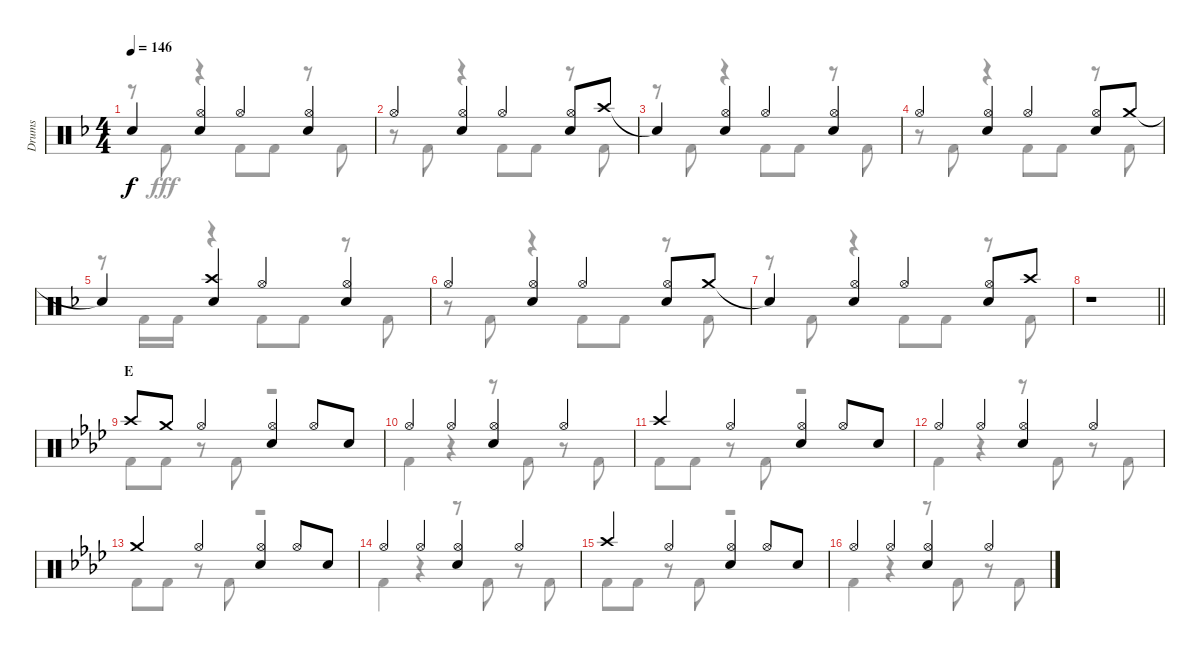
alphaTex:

\track ("Drums" "Drums") {instrument percussion}
\staff {score}
\articulation defaults
\voice
\ts (4 4)
\tempo 146
\clef neutral
\ks f "Snare (hit)"{t}.4{dy f}
("Hi-Hat (open)" "Snare (hit) 2").4 "Hi-Hat (open)".4 ("Hi-Hat (open)" "Snare (hit) 2").4 |
"Hi-Hat (open)".4 ("Hi-Hat (open)" "Snare (hit) 2").4 "Hi-Hat (open)".4 ("Hi-Hat (open)" "Snare (hit) 2").8 "Crash high (hit)".8 |
"Snare (hit)"{t}.4 ("Hi-Hat (open)" "Snare (hit) 2").4 "Hi-Hat (open)".4 ("Hi-Hat (open)" "Snare (hit) 2").4 |
"Hi-Hat (open)".4 ("Hi-Hat (open)" "Snare (hit) 2").4 "Hi-Hat (open)".4 ("Hi-Hat (open)" "Snare (hit) 2").8 "Crash medium (hit)".8 |
"Snare (hit)"{t}.4 ("Crash high (hit)" "Snare (hit) 2").4 "Hi-Hat (open)".4 ("Hi-Hat (open)" "Snare (hit) 2").4 |
"Hi-Hat (open)".4 ("Hi-Hat (open)" "Snare (hit) 2").4 "Hi-Hat (open)".4 ("Hi-Hat (open)" "Snare (hit) 2").8 "Crash medium (hit)".8 |
"Snare (hit)"{t}.4 ("Hi-Hat (open)" "Snare (hit) 2").4 "Hi-Hat (open)".4 ("Hi-Hat (open)" "Snare (hit) 2").8 "Crash high (hit)".8 |
\barLineRight lightlight
r.1 |
\section ("" "E")
\ks ab "Crash high (hit)".8 "Crash medium (hit)".8 "Hi-Hat (open)".4
("Hi-Hat (open)" "Snare (hit) 2").4 "Hi-Hat (open)".8 "Snare (hit) 2".8 |
"Hi-Hat (open)".4 "Hi-Hat (open)".4 ("Hi-Hat (open)" "Snare (hit) 2").4 "Hi-Hat (open)".4 |
"Crash high (hit)".4 "Hi-Hat (open)".4 ("Hi-Hat (open)" "Snare (hit) 2").4 "Hi-Hat (open)".8 "Snare (hit) 2".8 |
"Hi-Hat (open)".4 "Hi-Hat (open)".4 ("Hi-Hat (open)" "Snare (hit) 2").4 "Hi-Hat (open)".4 |
"Crash medium (hit)".4 "Hi-Hat (open)".4 ("Hi-Hat (open)" "Snare (hit) 2").4 "Hi-Hat (open)".8 "Snare (hit) 2".8 |
"Hi-Hat (open)".4 "Hi-Hat (open)".4 ("Hi-Hat (open)" "Snare (hit) 2").4 "Hi-Hat (open)".4 |
"Crash high (hit)".4 "Hi-Hat (open)".4 ("Hi-Hat (open)" "Snare (hit) 2").4 "Hi-Hat (open)".8 "Snare (hit) 2".8 |
"Hi-Hat (open)".4 "Hi-Hat (open)".4 ("Hi-Hat (open)" "Snare (hit) 2").4 "Hi-Hat (open)".4
\voice
\clef neutral
\ottava regular
\simile none
\ks f
r.8{dy fff} "Kick (hit) 2".8 r.4 "Kick (hit) 2".8 "Kick (hit) 2".8 r.8 "Kick (hit) 2".8 |
r.8 "Kick (hit) 2".8 r.4 "Kick (hit) 2".8 "Kick (hit) 2".8 r.8 "Kick (hit) 2".8 |
r.8 "Kick (hit) 2".8 r.4 "Kick (hit) 2".8 "Kick (hit) 2".8 r.8 "Kick (hit) 2".8 |
r.8 "Kick (hit) 2".8 r.4 "Kick (hit) 2".8 "Kick (hit) 2".8 r.8 "Kick (hit) 2".8 |
r.8 "Kick (hit) 2".16 "Kick (hit) 2".16 r.4 "Kick (hit) 2".8 "Kick (hit) 2".8 r.8 "Kick (hit) 2".8 |
r.8 "Kick (hit) 2".8 r.4 "Kick (hit) 2".8 "Kick (hit) 2".8 r.8 "Kick (hit) 2".8 |
r.8 "Kick (hit) 2".8 r.4 "Kick (hit) 2".8 "Kick (hit) 2".8 r.8 "Kick (hit) 2".8 |
\barLineRight lightlight
r.1 |
\ks ab "Kick (hit) 2".8 "Kick (hit) 2".8
r.8 "Kick (hit) 2".8 r.2 |
"Kick (hit) 2".4 r.4 r.8 "Kick (hit) 2".8 r.8 "Kick (hit) 2".8 |
"Kick (hit) 2".8 "Kick (hit) 2".8 r.8 "Kick (hit) 2".8 r.2 |
"Kick (hit) 2".4 r.4 r.8 "Kick (hit) 2".8 r.8 "Kick (hit) 2".8 |
"Kick (hit) 2".8 "Kick (hit) 2".8 r.8 "Kick (hit) 2".8 r.2 |
"Kick (hit) 2".4 r.4 r.8 "Kick (hit) 2".8 r.8 "Kick (hit) 2".8 |
"Kick (hit) 2".8 "Kick (hit) 2".8 r.8 "Kick (hit) 2".8 r.2 |
"Kick (hit) 2".4 r.4 r.8 "Kick (hit) 2".8 r.8 "Kick (hit) 2".8
